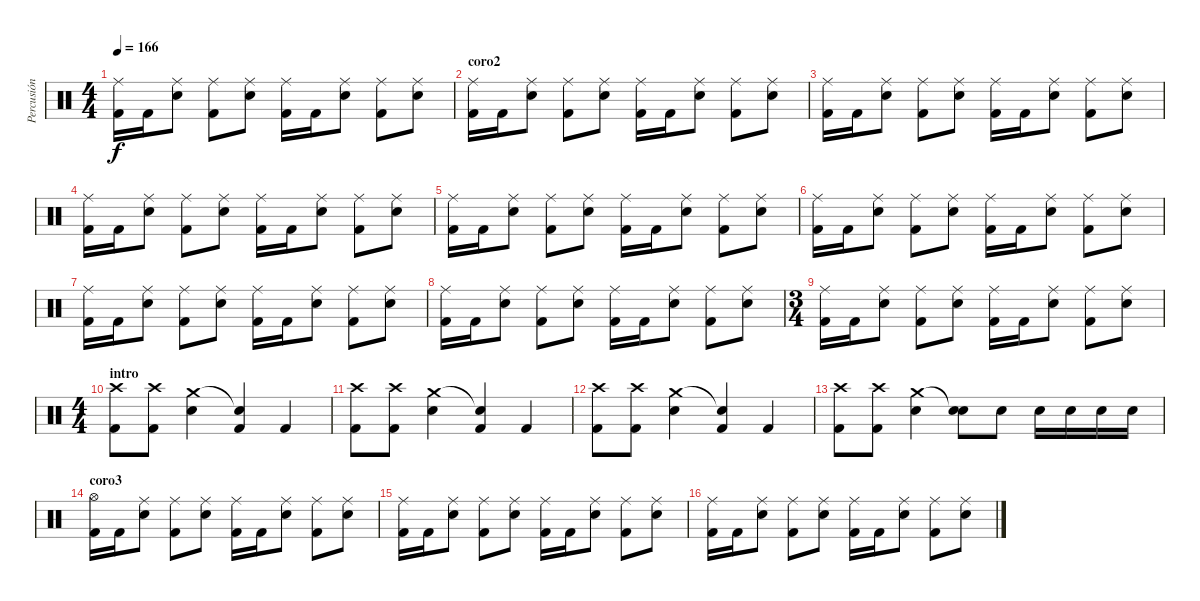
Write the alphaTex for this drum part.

\track ("Percusión" "Percusión") {instrument percussion}
\staff {score}
\articulation defaults
\ts (4 4)
\tempo 166
\clef neutral
\ks c
("Ride (middle)" "Kick (hit) 2").16{dy f} "Kick (hit) 2".16 ("Ride (middle)" "Electric Snare (hit)").8 ("Ride (middle)" "Kick (hit) 2").8 ("Ride (middle)" "Electric Snare (hit)").8 ("Ride (middle)" "Kick (hit) 2").16 "Kick (hit) 2".16 ("Ride (middle)" "Electric Snare (hit)").8 ("Ride (middle)" "Kick (hit) 2").8 ("Ride (middle)" "Electric Snare (hit)").8 |
\section ("" "coro2")
("Ride (middle)" "Kick (hit) 2").16 "Kick (hit) 2".16 ("Ride (middle)" "Electric Snare (hit)").8 ("Ride (middle)" "Kick (hit) 2").8 ("Ride (middle)" "Electric Snare (hit)").8 ("Ride (middle)" "Kick (hit) 2").16 "Kick (hit) 2".16 ("Ride (middle)" "Electric Snare (hit)").8 ("Ride (middle)" "Kick (hit) 2").8 ("Ride (middle)" "Electric Snare (hit)").8 |
("Ride (middle)" "Kick (hit) 2").16 "Kick (hit) 2".16 ("Ride (middle)" "Electric Snare (hit)").8 ("Ride (middle)" "Kick (hit) 2").8 ("Ride (middle)" "Electric Snare (hit)").8 ("Ride (middle)" "Kick (hit) 2").16 "Kick (hit) 2".16 ("Ride (middle)" "Electric Snare (hit)").8 ("Ride (middle)" "Kick (hit) 2").8 ("Ride (middle)" "Electric Snare (hit)").8 |
("Ride (middle)" "Kick (hit) 2").16 "Kick (hit) 2".16 ("Ride (middle)" "Electric Snare (hit)").8 ("Ride (middle)" "Kick (hit) 2").8 ("Ride (middle)" "Electric Snare (hit)").8 ("Ride (middle)" "Kick (hit) 2").16 "Kick (hit) 2".16 ("Ride (middle)" "Electric Snare (hit)").8 ("Ride (middle)" "Kick (hit) 2").8 ("Ride (middle)" "Electric Snare (hit)").8 |
("Ride (middle)" "Kick (hit) 2").16 "Kick (hit) 2".16 ("Ride (middle)" "Electric Snare (hit)").8 ("Ride (middle)" "Kick (hit) 2").8 ("Ride (middle)" "Electric Snare (hit)").8 ("Ride (middle)" "Kick (hit) 2").16 "Kick (hit) 2".16 ("Ride (middle)" "Electric Snare (hit)").8 ("Ride (middle)" "Kick (hit) 2").8 ("Ride (middle)" "Electric Snare (hit)").8 |
("Ride (middle)" "Kick (hit) 2").16 "Kick (hit) 2".16 ("Ride (middle)" "Electric Snare (hit)").8 ("Ride (middle)" "Kick (hit) 2").8 ("Ride (middle)" "Electric Snare (hit)").8 ("Ride (middle)" "Kick (hit) 2").16 "Kick (hit) 2".16 ("Ride (middle)" "Electric Snare (hit)").8 ("Ride (middle)" "Kick (hit) 2").8 ("Ride (middle)" "Electric Snare (hit)").8 |
("Ride (middle)" "Kick (hit) 2").16 "Kick (hit) 2".16 ("Ride (middle)" "Electric Snare (hit)").8 ("Ride (middle)" "Kick (hit) 2").8 ("Ride (middle)" "Electric Snare (hit)").8 ("Ride (middle)" "Kick (hit) 2").16 "Kick (hit) 2".16 ("Ride (middle)" "Electric Snare (hit)").8 ("Ride (middle)" "Kick (hit) 2").8 ("Ride (middle)" "Electric Snare (hit)").8 |
("Ride (middle)" "Kick (hit) 2").16 "Kick (hit) 2".16 ("Ride (middle)" "Electric Snare (hit)").8 ("Ride (middle)" "Kick (hit) 2").8 ("Ride (middle)" "Electric Snare (hit)").8 ("Ride (middle)" "Kick (hit) 2").16 "Kick (hit) 2".16 ("Ride (middle)" "Electric Snare (hit)").8 ("Ride (middle)" "Kick (hit) 2").8 ("Ride (middle)" "Electric Snare (hit)").8 |
\ts (3 4)
("Ride (middle)" "Kick (hit) 2").16 "Kick (hit) 2".16 ("Ride (middle)" "Electric Snare (hit)").8 ("Ride (middle)" "Kick (hit) 2").8 ("Ride (middle)" "Electric Snare (hit)").8 ("Ride (middle)" "Kick (hit) 2").16 "Kick (hit) 2".16 ("Ride (middle)" "Electric Snare (hit)").8 ("Ride (middle)" "Kick (hit) 2").8 ("Ride (middle)" "Electric Snare (hit)").8 |
\ts (4 4)
\section ("" "intro")
("Crash high (hit)" "Kick (hit) 2").8 ("Crash high (hit)" "Kick (hit) 2").8 ("Crash medium (hit)" "Electric Snare (hit)").4 ("Snare (hit)"{t} "Kick (hit) 2").4 "Kick (hit) 2".4 |
("Crash high (hit)" "Kick (hit) 2").8 ("Crash high (hit)" "Kick (hit) 2").8 ("Crash medium (hit)" "Electric Snare (hit)").4 ("Snare (hit)"{t} "Kick (hit) 2").4 "Kick (hit) 2".4 |
("Crash high (hit)" "Kick (hit) 2").8 ("Crash high (hit)" "Kick (hit) 2").8 ("Crash medium (hit)" "Electric Snare (hit)").4 ("Snare (hit)"{t} "Kick (hit) 2").4 "Kick (hit) 2".4 |
("Crash high (hit)" "Kick (hit) 2").8 ("Crash high (hit)" "Kick (hit) 2").8 ("Crash medium (hit)" "Electric Snare (hit)").4 ("Snare (hit)"{t} "Electric Snare (hit)").8 "Electric Snare (hit)".8 "Electric Snare (hit)".16 "Electric Snare (hit)".16 "Electric Snare (hit)".16 "Electric Snare (hit)".16 |
\section ("" "coro3")
("Hi-Hat (open)" "Kick (hit) 2").16 "Kick (hit) 2".16 ("Ride (middle)" "Electric Snare (hit)").8 ("Ride (middle)" "Kick (hit) 2").8 ("Ride (middle)" "Electric Snare (hit)").8 ("Ride (middle)" "Kick (hit) 2").16 "Kick (hit) 2".16 ("Ride (middle)" "Electric Snare (hit)").8 ("Ride (middle)" "Kick (hit) 2").8 ("Ride (middle)" "Electric Snare (hit)").8 |
("Ride (middle)" "Kick (hit) 2").16 "Kick (hit) 2".16 ("Ride (middle)" "Electric Snare (hit)").8 ("Ride (middle)" "Kick (hit) 2").8 ("Ride (middle)" "Electric Snare (hit)").8 ("Ride (middle)" "Kick (hit) 2").16 "Kick (hit) 2".16 ("Ride (middle)" "Electric Snare (hit)").8 ("Ride (middle)" "Kick (hit) 2").8 ("Ride (middle)" "Electric Snare (hit)").8 |
("Ride (middle)" "Kick (hit) 2").16 "Kick (hit) 2".16 ("Ride (middle)" "Electric Snare (hit)").8 ("Ride (middle)" "Kick (hit) 2").8 ("Ride (middle)" "Electric Snare (hit)").8 ("Ride (middle)" "Kick (hit) 2").16 "Kick (hit) 2".16 ("Ride (middle)" "Electric Snare (hit)").8 ("Ride (middle)" "Kick (hit) 2").8 ("Ride (middle)" "Electric Snare (hit)").8
